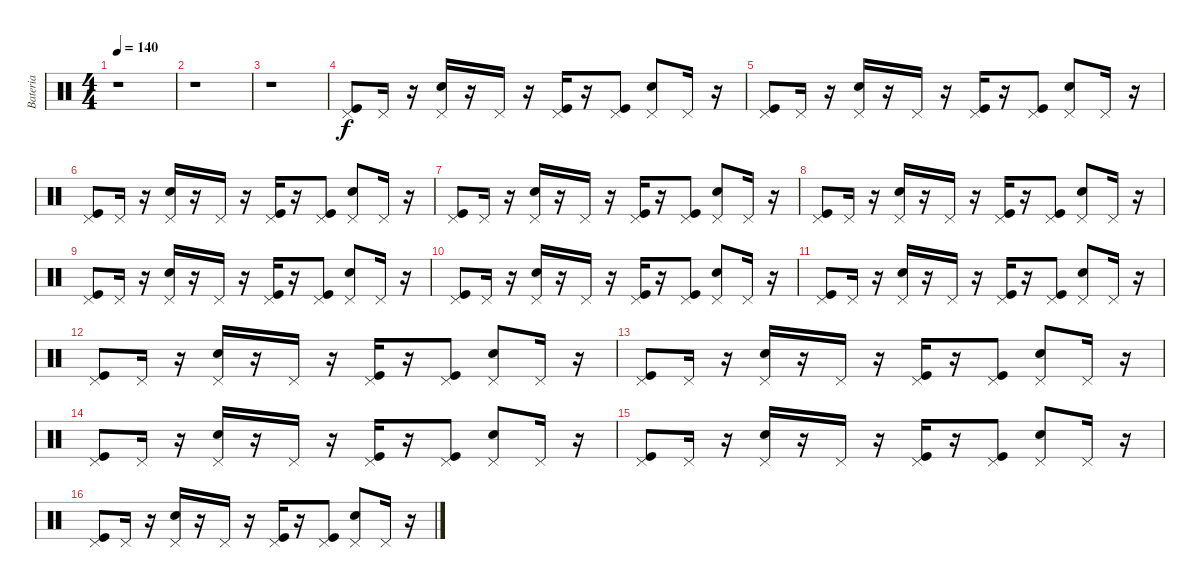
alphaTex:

\track ("Bateria" "Bateria") {instrument percussion}
\staff {score}
\articulation defaults
\ts (4 4)
\tempo 140
\clef neutral
\ks c
r.1{dy f} |
r.1 |
r.1 |
("Pedal Hi-Hat (hit)" "Kick (hit)").8 "Pedal Hi-Hat (hit)".16 r.16 ("Pedal Hi-Hat (hit)" "Snare (hit) 2").16 r.16 "Pedal Hi-Hat (hit)".16 r.16 ("Pedal Hi-Hat (hit)" "Kick (hit)").16 r.16 ("Pedal Hi-Hat (hit)" "Kick (hit)").8 ("Pedal Hi-Hat (hit)" "Snare (hit) 2").8 "Pedal Hi-Hat (hit)".16 r.16 |
("Pedal Hi-Hat (hit)" "Kick (hit)").8 "Pedal Hi-Hat (hit)".16 r.16 ("Pedal Hi-Hat (hit)" "Snare (hit) 2").16 r.16 "Pedal Hi-Hat (hit)".16 r.16 ("Pedal Hi-Hat (hit)" "Kick (hit)").16 r.16 ("Pedal Hi-Hat (hit)" "Kick (hit)").8 ("Pedal Hi-Hat (hit)" "Snare (hit) 2").8 "Pedal Hi-Hat (hit)".16 r.16 |
("Pedal Hi-Hat (hit)" "Kick (hit)").8 "Pedal Hi-Hat (hit)".16 r.16 ("Pedal Hi-Hat (hit)" "Snare (hit) 2").16 r.16 "Pedal Hi-Hat (hit)".16 r.16 ("Pedal Hi-Hat (hit)" "Kick (hit)").16 r.16 ("Pedal Hi-Hat (hit)" "Kick (hit)").8 ("Pedal Hi-Hat (hit)" "Snare (hit) 2").8 "Pedal Hi-Hat (hit)".16 r.16 |
("Pedal Hi-Hat (hit)" "Kick (hit)").8 "Pedal Hi-Hat (hit)".16 r.16 ("Pedal Hi-Hat (hit)" "Snare (hit) 2").16 r.16 "Pedal Hi-Hat (hit)".16 r.16 ("Pedal Hi-Hat (hit)" "Kick (hit)").16 r.16 ("Pedal Hi-Hat (hit)" "Kick (hit)").8 ("Pedal Hi-Hat (hit)" "Snare (hit) 2").8 "Pedal Hi-Hat (hit)".16 r.16 |
("Pedal Hi-Hat (hit)" "Kick (hit)").8 "Pedal Hi-Hat (hit)".16 r.16 ("Pedal Hi-Hat (hit)" "Snare (hit) 2").16 r.16 "Pedal Hi-Hat (hit)".16 r.16 ("Pedal Hi-Hat (hit)" "Kick (hit)").16 r.16 ("Pedal Hi-Hat (hit)" "Kick (hit)").8 ("Pedal Hi-Hat (hit)" "Snare (hit) 2").8 "Pedal Hi-Hat (hit)".16 r.16 |
("Pedal Hi-Hat (hit)" "Kick (hit)").8 "Pedal Hi-Hat (hit)".16 r.16 ("Pedal Hi-Hat (hit)" "Snare (hit) 2").16 r.16 "Pedal Hi-Hat (hit)".16 r.16 ("Pedal Hi-Hat (hit)" "Kick (hit)").16 r.16 ("Pedal Hi-Hat (hit)" "Kick (hit)").8 ("Pedal Hi-Hat (hit)" "Snare (hit) 2").8 "Pedal Hi-Hat (hit)".16 r.16 |
("Pedal Hi-Hat (hit)" "Kick (hit)").8 "Pedal Hi-Hat (hit)".16 r.16 ("Pedal Hi-Hat (hit)" "Snare (hit) 2").16 r.16 "Pedal Hi-Hat (hit)".16 r.16 ("Pedal Hi-Hat (hit)" "Kick (hit)").16 r.16 ("Pedal Hi-Hat (hit)" "Kick (hit)").8 ("Pedal Hi-Hat (hit)" "Snare (hit) 2").8 "Pedal Hi-Hat (hit)".16 r.16 |
("Pedal Hi-Hat (hit)" "Kick (hit)").8 "Pedal Hi-Hat (hit)".16 r.16 ("Pedal Hi-Hat (hit)" "Snare (hit) 2").16 r.16 "Pedal Hi-Hat (hit)".16 r.16 ("Pedal Hi-Hat (hit)" "Kick (hit)").16 r.16 ("Pedal Hi-Hat (hit)" "Kick (hit)").8 ("Pedal Hi-Hat (hit)" "Snare (hit) 2").8 "Pedal Hi-Hat (hit)".16 r.16 |
("Pedal Hi-Hat (hit)" "Kick (hit)").8 "Pedal Hi-Hat (hit)".16 r.16 ("Pedal Hi-Hat (hit)" "Snare (hit) 2").16 r.16 "Pedal Hi-Hat (hit)".16 r.16 ("Pedal Hi-Hat (hit)" "Kick (hit)").16 r.16 ("Pedal Hi-Hat (hit)" "Kick (hit)").8 ("Pedal Hi-Hat (hit)" "Snare (hit) 2").8 "Pedal Hi-Hat (hit)".16 r.16 |
("Pedal Hi-Hat (hit)" "Kick (hit)").8 "Pedal Hi-Hat (hit)".16 r.16 ("Pedal Hi-Hat (hit)" "Snare (hit) 2").16 r.16 "Pedal Hi-Hat (hit)".16 r.16 ("Pedal Hi-Hat (hit)" "Kick (hit)").16 r.16 ("Pedal Hi-Hat (hit)" "Kick (hit)").8 ("Pedal Hi-Hat (hit)" "Snare (hit) 2").8 "Pedal Hi-Hat (hit)".16 r.16 |
("Pedal Hi-Hat (hit)" "Kick (hit)").8 "Pedal Hi-Hat (hit)".16 r.16 ("Pedal Hi-Hat (hit)" "Snare (hit) 2").16 r.16 "Pedal Hi-Hat (hit)".16 r.16 ("Pedal Hi-Hat (hit)" "Kick (hit)").16 r.16 ("Pedal Hi-Hat (hit)" "Kick (hit)").8 ("Pedal Hi-Hat (hit)" "Snare (hit) 2").8 "Pedal Hi-Hat (hit)".16 r.16 |
("Pedal Hi-Hat (hit)" "Kick (hit)").8 "Pedal Hi-Hat (hit)".16 r.16 ("Pedal Hi-Hat (hit)" "Snare (hit) 2").16 r.16 "Pedal Hi-Hat (hit)".16 r.16 ("Pedal Hi-Hat (hit)" "Kick (hit)").16 r.16 ("Pedal Hi-Hat (hit)" "Kick (hit)").8 ("Pedal Hi-Hat (hit)" "Snare (hit) 2").8 "Pedal Hi-Hat (hit)".16 r.16 |
("Pedal Hi-Hat (hit)" "Kick (hit)").8 "Pedal Hi-Hat (hit)".16 r.16 ("Pedal Hi-Hat (hit)" "Snare (hit) 2").16 r.16 "Pedal Hi-Hat (hit)".16 r.16 ("Pedal Hi-Hat (hit)" "Kick (hit)").16 r.16 ("Pedal Hi-Hat (hit)" "Kick (hit)").8 ("Pedal Hi-Hat (hit)" "Snare (hit) 2").8 "Pedal Hi-Hat (hit)".16 r.16
